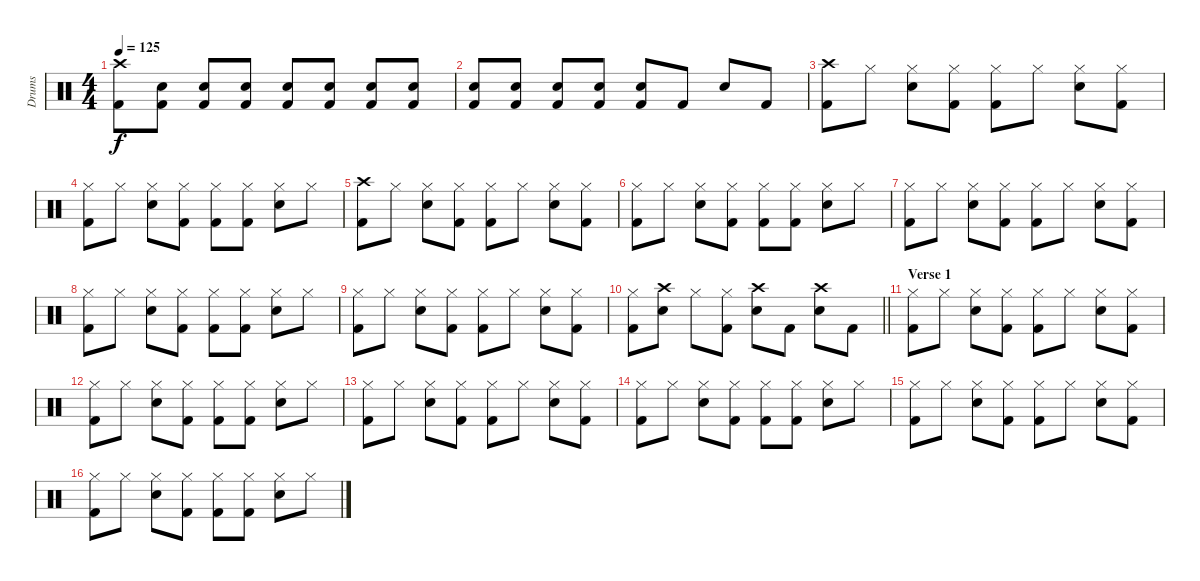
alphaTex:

\track ("Drums" "Drums") {instrument percussion}
\staff {score}
\articulation defaults
\ts (4 4)
\tempo 125
\clef neutral
\ks c
("Crash high (hit)" "Kick (hit) 2").8{dy f} ("Snare (hit) 2" "Kick (hit) 2").8 ("Snare (hit) 2" "Kick (hit) 2").8 ("Snare (hit) 2" "Kick (hit) 2").8 ("Snare (hit) 2" "Kick (hit) 2").8 ("Snare (hit) 2" "Kick (hit) 2").8 ("Snare (hit) 2" "Kick (hit) 2").8 ("Snare (hit) 2" "Kick (hit) 2").8 |
("Snare (hit) 2" "Kick (hit) 2").8 ("Snare (hit) 2" "Kick (hit) 2").8 ("Snare (hit) 2" "Kick (hit) 2").8 ("Snare (hit) 2" "Kick (hit) 2").8 ("Snare (hit) 2" "Kick (hit) 2").8 "Kick (hit) 2".8 "Snare (hit) 2".8 "Kick (hit) 2".8 |
("Crash high (hit)" "Kick (hit) 2").8 "Hi-Hat (closed)".8 ("Hi-Hat (closed)" "Snare (hit) 2").8 ("Hi-Hat (closed)" "Kick (hit) 2").8 ("Hi-Hat (closed)" "Kick (hit) 2").8 "Hi-Hat (closed)".8 ("Hi-Hat (closed)" "Snare (hit) 2").8 ("Hi-Hat (closed)" "Kick (hit) 2").8 |
("Hi-Hat (closed)" "Kick (hit) 2").8 "Hi-Hat (closed)".8 ("Hi-Hat (closed)" "Snare (hit) 2").8 ("Hi-Hat (closed)" "Kick (hit) 2").8 ("Hi-Hat (closed)" "Kick (hit) 2").8 ("Hi-Hat (closed)" "Kick (hit) 2").8 ("Hi-Hat (closed)" "Snare (hit) 2").8 "Hi-Hat (closed)".8 |
("Crash high (hit)" "Kick (hit) 2").8 "Hi-Hat (closed)".8 ("Hi-Hat (closed)" "Snare (hit) 2").8 ("Hi-Hat (closed)" "Kick (hit) 2").8 ("Hi-Hat (closed)" "Kick (hit) 2").8 "Hi-Hat (closed)".8 ("Hi-Hat (closed)" "Snare (hit) 2").8 ("Hi-Hat (closed)" "Kick (hit) 2").8 |
("Hi-Hat (closed)" "Kick (hit) 2").8 "Hi-Hat (closed)".8 ("Hi-Hat (closed)" "Snare (hit) 2").8 ("Hi-Hat (closed)" "Kick (hit) 2").8 ("Hi-Hat (closed)" "Kick (hit) 2").8 ("Hi-Hat (closed)" "Kick (hit) 2").8 ("Hi-Hat (closed)" "Snare (hit) 2").8 "Hi-Hat (closed)".8 |
("Hi-Hat (closed)" "Kick (hit) 2").8 "Hi-Hat (closed)".8 ("Hi-Hat (closed)" "Snare (hit) 2").8 ("Hi-Hat (closed)" "Kick (hit) 2").8 ("Hi-Hat (closed)" "Kick (hit) 2").8 "Hi-Hat (closed)".8 ("Hi-Hat (closed)" "Snare (hit) 2").8 ("Hi-Hat (closed)" "Kick (hit) 2").8 |
("Hi-Hat (closed)" "Kick (hit) 2").8 "Hi-Hat (closed)".8 ("Hi-Hat (closed)" "Snare (hit) 2").8 ("Hi-Hat (closed)" "Kick (hit) 2").8 ("Hi-Hat (closed)" "Kick (hit) 2").8 ("Hi-Hat (closed)" "Kick (hit) 2").8 ("Hi-Hat (closed)" "Snare (hit) 2").8 "Hi-Hat (closed)".8 |
("Hi-Hat (closed)" "Kick (hit) 2").8 "Hi-Hat (closed)".8 ("Hi-Hat (closed)" "Snare (hit) 2").8 ("Hi-Hat (closed)" "Kick (hit) 2").8 ("Hi-Hat (closed)" "Kick (hit) 2").8 "Hi-Hat (closed)".8 ("Hi-Hat (closed)" "Snare (hit) 2").8 ("Hi-Hat (closed)" "Kick (hit) 2").8 |
\barLineRight lightlight
("Hi-Hat (closed)" "Kick (hit) 2").8 ("Crash high (hit)" "Snare (hit) 2").8 "Hi-Hat (closed)".8 ("Hi-Hat (closed)" "Kick (hit) 2").8 ("Crash high (hit)" "Snare (hit) 2").8 "Kick (hit) 2".8 ("Crash high (hit)" "Snare (hit) 2").8 "Kick (hit) 2".8 |
\section ("" "Verse 1")
("Hi-Hat (closed)" "Kick (hit) 2").8 "Hi-Hat (closed)".8 ("Hi-Hat (closed)" "Snare (hit) 2").8 ("Hi-Hat (closed)" "Kick (hit) 2").8 ("Hi-Hat (closed)" "Kick (hit) 2").8 "Hi-Hat (closed)".8 ("Hi-Hat (closed)" "Snare (hit) 2").8 ("Hi-Hat (closed)" "Kick (hit) 2").8 |
("Hi-Hat (closed)" "Kick (hit) 2").8 "Hi-Hat (closed)".8 ("Hi-Hat (closed)" "Snare (hit) 2").8 ("Hi-Hat (closed)" "Kick (hit) 2").8 ("Hi-Hat (closed)" "Kick (hit) 2").8 ("Hi-Hat (closed)" "Kick (hit) 2").8 ("Hi-Hat (closed)" "Snare (hit) 2").8 "Hi-Hat (closed)".8 |
("Hi-Hat (closed)" "Kick (hit) 2").8 "Hi-Hat (closed)".8 ("Hi-Hat (closed)" "Snare (hit) 2").8 ("Hi-Hat (closed)" "Kick (hit) 2").8 ("Hi-Hat (closed)" "Kick (hit) 2").8 "Hi-Hat (closed)".8 ("Hi-Hat (closed)" "Snare (hit) 2").8 ("Hi-Hat (closed)" "Kick (hit) 2").8 |
("Hi-Hat (closed)" "Kick (hit) 2").8 "Hi-Hat (closed)".8 ("Hi-Hat (closed)" "Snare (hit) 2").8 ("Hi-Hat (closed)" "Kick (hit) 2").8 ("Hi-Hat (closed)" "Kick (hit) 2").8 ("Hi-Hat (closed)" "Kick (hit) 2").8 ("Hi-Hat (closed)" "Snare (hit) 2").8 "Hi-Hat (closed)".8 |
("Hi-Hat (closed)" "Kick (hit) 2").8 "Hi-Hat (closed)".8 ("Hi-Hat (closed)" "Snare (hit) 2").8 ("Hi-Hat (closed)" "Kick (hit) 2").8 ("Hi-Hat (closed)" "Kick (hit) 2").8 "Hi-Hat (closed)".8 ("Hi-Hat (closed)" "Snare (hit) 2").8 ("Hi-Hat (closed)" "Kick (hit) 2").8 |
("Hi-Hat (closed)" "Kick (hit) 2").8 "Hi-Hat (closed)".8 ("Hi-Hat (closed)" "Snare (hit) 2").8 ("Hi-Hat (closed)" "Kick (hit) 2").8 ("Hi-Hat (closed)" "Kick (hit) 2").8 ("Hi-Hat (closed)" "Kick (hit) 2").8 ("Hi-Hat (closed)" "Snare (hit) 2").8 "Hi-Hat (closed)".8
